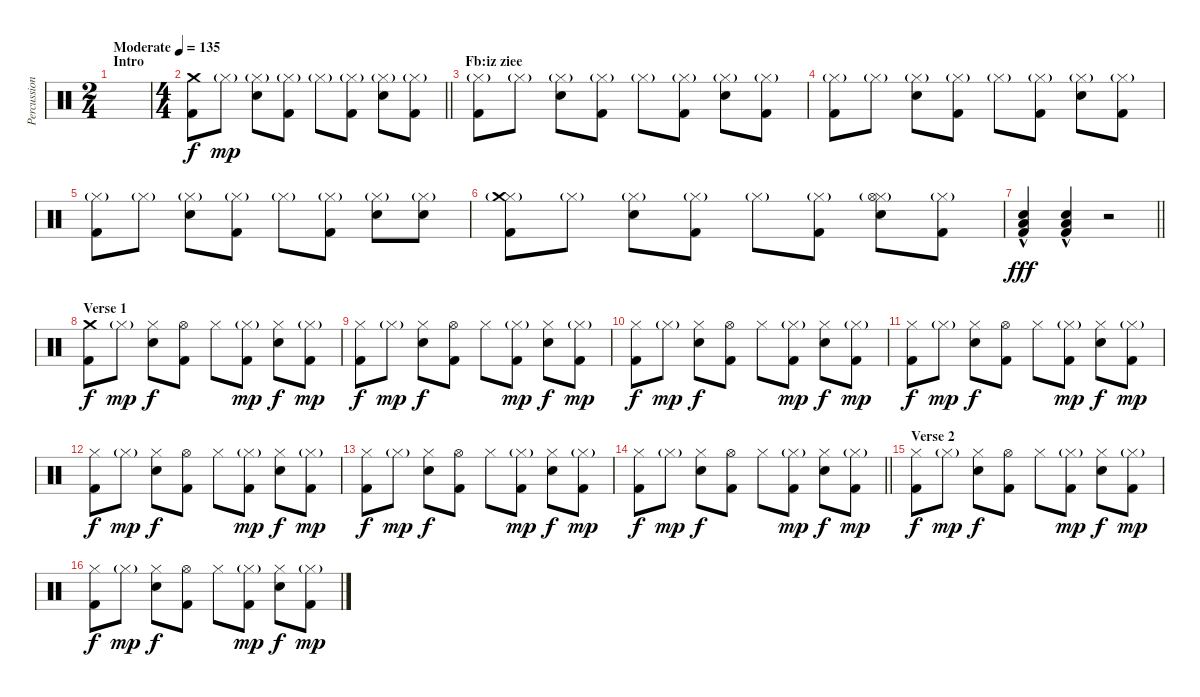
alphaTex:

\track ("Percussion 1" "Percussion") {instrument percussion}
\staff {score}
\articulation defaults
\ts (2 4)
\section ("" "Intro")
\tempo (135 "Moderate")
\clef neutral
\ks c
|
\ts (4 4)
\barLineRight lightlight
("Crash medium (hit)" "Kick (hit) 2").8 "Hi-Hat (closed)"{g}.8{dy mp} ("Hi-Hat (closed)"{g} "Electric Snare (hit)").8 ("Hi-Hat (closed)"{g} "Kick (hit) 2").8 "Hi-Hat (closed)"{g}.8 ("Hi-Hat (closed)"{g} "Kick (hit) 2").8 ("Hi-Hat (closed)"{g} "Electric Snare (hit)").8 ("Hi-Hat (closed)"{g} "Kick (hit) 2").8 |
\section ("" "Fb:iz ziee")
("Hi-Hat (closed)"{g} "Kick (hit) 2").8 "Hi-Hat (closed)"{g}.8 ("Hi-Hat (closed)"{g} "Electric Snare (hit)").8 ("Hi-Hat (closed)"{g} "Kick (hit) 2").8 "Hi-Hat (closed)"{g}.8 ("Hi-Hat (closed)"{g} "Kick (hit) 2").8 ("Hi-Hat (closed)"{g} "Electric Snare (hit)").8 ("Hi-Hat (closed)"{g} "Kick (hit) 2").8 |
("Hi-Hat (closed)"{g} "Kick (hit) 2").8 "Hi-Hat (closed)"{g}.8 ("Hi-Hat (closed)"{g} "Electric Snare (hit)").8 ("Hi-Hat (closed)"{g} "Kick (hit) 2").8 "Hi-Hat (closed)"{g}.8 ("Hi-Hat (closed)"{g} "Kick (hit) 2").8 ("Hi-Hat (closed)"{g} "Electric Snare (hit)").8 ("Hi-Hat (closed)"{g} "Kick (hit) 2").8 |
("Hi-Hat (closed)"{g} "Kick (hit) 2").8 "Hi-Hat (closed)"{g}.8 ("Hi-Hat (closed)"{g} "Electric Snare (hit)").8 ("Hi-Hat (closed)"{g} "Kick (hit) 2").8 "Hi-Hat (closed)"{g}.8 ("Hi-Hat (closed)"{g} "Kick (hit) 2").8 ("Hi-Hat (closed)"{g} "Electric Snare (hit)").8 ("Hi-Hat (closed)"{g} "Electric Snare (hit)").8 |
("Hi-Hat (closed)"{g} "Crash medium (hit)" "Kick (hit) 2").8 "Hi-Hat (closed)"{g}.8 ("Hi-Hat (closed)"{g} "Electric Snare (hit)").8 ("Hi-Hat (closed)"{g} "Kick (hit) 2").8 "Hi-Hat (closed)"{g}.8 ("Hi-Hat (closed)"{g} "Kick (hit) 2").8 ("Hi-Hat (closed)"{g} "Electric Snare (hit)" "Hi-Hat (open)").8 ("Hi-Hat (closed)"{g} "Kick (hit) 2").8 |
\barLineRight lightlight
("Electric Snare (hit)"{hac} "Low Tom (hit)" "Kick (hit) 2").4{dy fff} ("Electric Snare (hit)"{hac} "Low Tom (hit)" "Kick (hit) 2").4 r.2 |
\section ("" "Verse 1")
("Crash medium (hit)" "Kick (hit) 2").8{dy f} "Hi-Hat (closed)"{g}.8{dy mp} ("Hi-Hat (closed)" "Electric Snare (hit)").8{dy f} ("Hi-Hat (open)" "Kick (hit) 2").8 "Hi-Hat (closed)".8 ("Hi-Hat (closed)"{g} "Kick (hit) 2").8{dy mp} ("Hi-Hat (closed)" "Electric Snare (hit)").8{dy f} ("Hi-Hat (closed)"{g} "Kick (hit) 2").8{dy mp} |
("Hi-Hat (closed)" "Kick (hit) 2").8{dy f} "Hi-Hat (closed)"{g}.8{dy mp} ("Hi-Hat (closed)" "Electric Snare (hit)").8{dy f} ("Hi-Hat (open)" "Kick (hit) 2").8 "Hi-Hat (closed)".8 ("Hi-Hat (closed)"{g} "Kick (hit) 2").8{dy mp} ("Hi-Hat (closed)" "Electric Snare (hit)").8{dy f} ("Hi-Hat (closed)"{g} "Kick (hit) 2").8{dy mp} |
("Hi-Hat (closed)" "Kick (hit) 2").8{dy f} "Hi-Hat (closed)"{g}.8{dy mp} ("Hi-Hat (closed)" "Electric Snare (hit)").8{dy f} ("Hi-Hat (open)" "Kick (hit) 2").8 "Hi-Hat (closed)".8 ("Hi-Hat (closed)"{g} "Kick (hit) 2").8{dy mp} ("Hi-Hat (closed)" "Electric Snare (hit)").8{dy f} ("Hi-Hat (closed)"{g} "Kick (hit) 2").8{dy mp} |
("Hi-Hat (closed)" "Kick (hit) 2").8{dy f} "Hi-Hat (closed)"{g}.8{dy mp} ("Hi-Hat (closed)" "Electric Snare (hit)").8{dy f} ("Hi-Hat (open)" "Kick (hit) 2").8 "Hi-Hat (closed)".8 ("Hi-Hat (closed)"{g} "Kick (hit) 2").8{dy mp} ("Hi-Hat (closed)" "Electric Snare (hit)").8{dy f} ("Hi-Hat (closed)"{g} "Kick (hit) 2").8{dy mp} |
("Hi-Hat (closed)" "Kick (hit) 2").8{dy f} "Hi-Hat (closed)"{g}.8{dy mp} ("Hi-Hat (closed)" "Electric Snare (hit)").8{dy f} ("Hi-Hat (open)" "Kick (hit) 2").8 "Hi-Hat (closed)".8 ("Hi-Hat (closed)"{g} "Kick (hit) 2").8{dy mp} ("Hi-Hat (closed)" "Electric Snare (hit)").8{dy f} ("Hi-Hat (closed)"{g} "Kick (hit) 2").8{dy mp} |
("Hi-Hat (closed)" "Kick (hit) 2").8{dy f} "Hi-Hat (closed)"{g}.8{dy mp} ("Hi-Hat (closed)" "Electric Snare (hit)").8{dy f} ("Hi-Hat (open)" "Kick (hit) 2").8 "Hi-Hat (closed)".8 ("Hi-Hat (closed)"{g} "Kick (hit) 2").8{dy mp} ("Hi-Hat (closed)" "Electric Snare (hit)").8{dy f} ("Hi-Hat (closed)"{g} "Kick (hit) 2").8{dy mp} |
\barLineRight lightlight
("Hi-Hat (closed)" "Kick (hit) 2").8{dy f} "Hi-Hat (closed)"{g}.8{dy mp} ("Hi-Hat (closed)" "Electric Snare (hit)").8{dy f} ("Hi-Hat (open)" "Kick (hit) 2").8 "Hi-Hat (closed)".8 ("Hi-Hat (closed)"{g} "Kick (hit) 2").8{dy mp} ("Hi-Hat (closed)" "Electric Snare (hit)").8{dy f} ("Hi-Hat (closed)"{g} "Kick (hit) 2").8{dy mp} |
\section ("" "Verse 2")
("Hi-Hat (closed)" "Kick (hit) 2").8{dy f} "Hi-Hat (closed)"{g}.8{dy mp} ("Hi-Hat (closed)" "Electric Snare (hit)").8{dy f} ("Hi-Hat (open)" "Kick (hit) 2").8 "Hi-Hat (closed)".8 ("Hi-Hat (closed)"{g} "Kick (hit) 2").8{dy mp} ("Hi-Hat (closed)" "Electric Snare (hit)").8{dy f} ("Hi-Hat (closed)"{g} "Kick (hit) 2").8{dy mp} |
("Hi-Hat (closed)" "Kick (hit) 2").8{dy f} "Hi-Hat (closed)"{g}.8{dy mp} ("Hi-Hat (closed)" "Electric Snare (hit)").8{dy f} ("Hi-Hat (open)" "Kick (hit) 2").8 "Hi-Hat (closed)".8 ("Hi-Hat (closed)"{g} "Kick (hit) 2").8{dy mp} ("Hi-Hat (closed)" "Electric Snare (hit)").8{dy f} ("Hi-Hat (closed)"{g} "Kick (hit) 2").8{dy mp}
